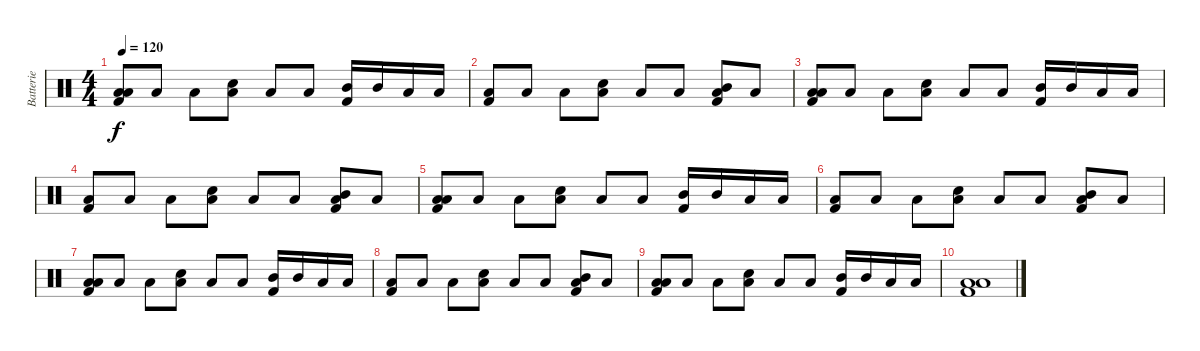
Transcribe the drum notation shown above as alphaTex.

\track ("Batterie" "Batterie") {instrument percussion}
\staff {score}
\articulation defaults
\ts (4 4)
\tempo 120
\clef neutral
\ks c
("Low Tom (hit)" "Low Floor Tom (hit)" "Kick (hit) 2").8{dy f} "Low Floor Tom (hit)".8 "Low Floor Tom (hit)".8 ("Low Floor Tom (hit)" "Snare (hit) 2").8 "Low Floor Tom (hit)".8 "Low Floor Tom (hit)".8 ("Mid Tom (hit)" "Kick (hit) 2").16 "Mid Tom (hit)".16 "Low Tom (hit)".16 "Low Tom (hit)".16 |
("Low Floor Tom (hit)" "Kick (hit) 2").8 "Low Floor Tom (hit)".8 "Low Floor Tom (hit)".8 ("Snare (hit) 2" "Low Floor Tom (hit)").8 "Low Floor Tom (hit)".8 "Low Floor Tom (hit)".8 ("Mid Tom (hit)" "Low Floor Tom (hit)" "Kick (hit) 2").8 "Low Floor Tom (hit)".8 |
("Low Tom (hit)" "Low Floor Tom (hit)" "Kick (hit) 2").8 "Low Floor Tom (hit)".8 "Low Floor Tom (hit)".8 ("Low Floor Tom (hit)" "Snare (hit) 2").8 "Low Floor Tom (hit)".8 "Low Floor Tom (hit)".8 ("Mid Tom (hit)" "Kick (hit) 2").16 "Mid Tom (hit)".16 "Low Tom (hit)".16 "Low Tom (hit)".16 |
("Low Floor Tom (hit)" "Kick (hit) 2").8 "Low Floor Tom (hit)".8 "Low Floor Tom (hit)".8 ("Snare (hit) 2" "Low Floor Tom (hit)").8 "Low Floor Tom (hit)".8 "Low Floor Tom (hit)".8 ("Mid Tom (hit)" "Low Floor Tom (hit)" "Kick (hit) 2").8 "Low Floor Tom (hit)".8 |
("Low Tom (hit)" "Low Floor Tom (hit)" "Kick (hit) 2").8 "Low Floor Tom (hit)".8 "Low Floor Tom (hit)".8 ("Low Floor Tom (hit)" "Snare (hit) 2").8 "Low Floor Tom (hit)".8 "Low Floor Tom (hit)".8 ("Mid Tom (hit)" "Kick (hit) 2").16 "Mid Tom (hit)".16 "Low Tom (hit)".16 "Low Tom (hit)".16 |
("Low Floor Tom (hit)" "Kick (hit) 2").8 "Low Floor Tom (hit)".8 "Low Floor Tom (hit)".8 ("Snare (hit) 2" "Low Floor Tom (hit)").8 "Low Floor Tom (hit)".8 "Low Floor Tom (hit)".8 ("Mid Tom (hit)" "Low Floor Tom (hit)" "Kick (hit) 2").8 "Low Floor Tom (hit)".8 |
("Low Tom (hit)" "Low Floor Tom (hit)" "Kick (hit) 2").8 "Low Floor Tom (hit)".8 "Low Floor Tom (hit)".8 ("Low Floor Tom (hit)" "Snare (hit) 2").8 "Low Floor Tom (hit)".8 "Low Floor Tom (hit)".8 ("Mid Tom (hit)" "Kick (hit) 2").16 "Mid Tom (hit)".16 "Low Tom (hit)".16 "Low Tom (hit)".16 |
("Low Floor Tom (hit)" "Kick (hit) 2").8 "Low Floor Tom (hit)".8 "Low Floor Tom (hit)".8 ("Snare (hit) 2" "Low Floor Tom (hit)").8 "Low Floor Tom (hit)".8 "Low Floor Tom (hit)".8 ("Mid Tom (hit)" "Low Floor Tom (hit)" "Kick (hit) 2").8 "Low Floor Tom (hit)".8 |
("Low Tom (hit)" "Low Floor Tom (hit)" "Kick (hit) 2").8 "Low Floor Tom (hit)".8 "Low Floor Tom (hit)".8 ("Low Floor Tom (hit)" "Snare (hit) 2").8 "Low Floor Tom (hit)".8 "Low Floor Tom (hit)".8 ("Mid Tom (hit)" "Kick (hit) 2").16 "Mid Tom (hit)".16 "Low Tom (hit)".16 "Low Tom (hit)".16 |
("Low Floor Tom (hit)" "Low Floor Tom (hit)" "Kick (hit) 2").1
